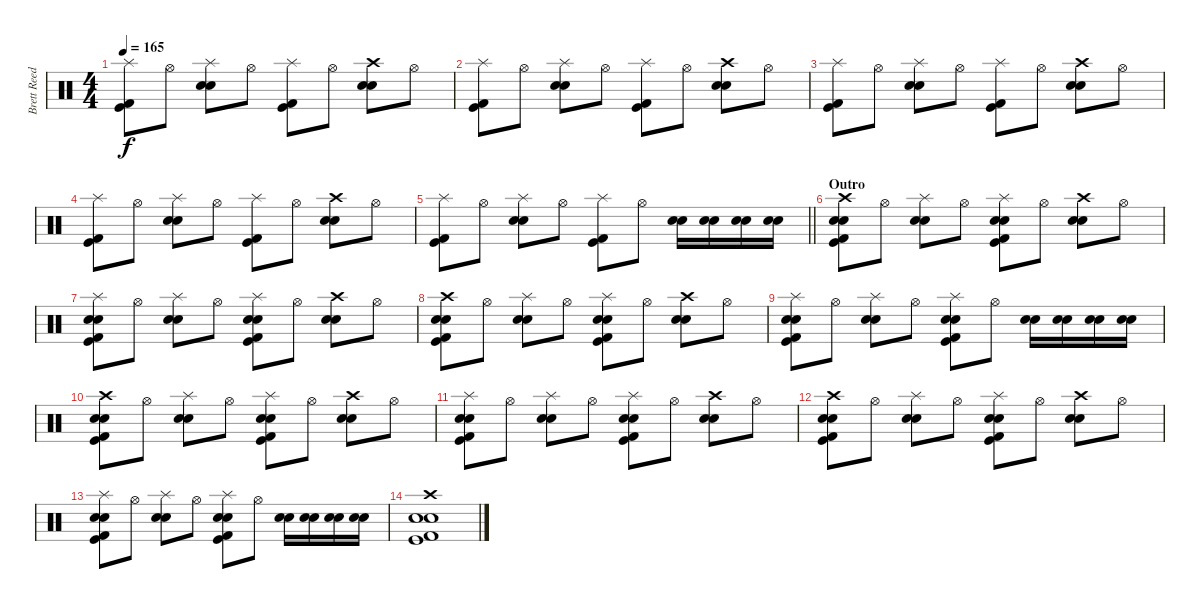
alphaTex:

\track ("Brett Reed" "Brett Reed") {instrument percussion}
\staff {score}
\articulation defaults
\ts (4 4)
\tempo 165
\clef neutral
\ks c
("Splash (hit)" "Kick (hit) 2" "Kick (hit)").8{dy f} "Hi-Hat (open)".8 ("Splash (hit)" "Electric Snare (hit)" "Snare (hit) 2").8 "Hi-Hat (open)".8 ("Splash (hit)" "Kick (hit) 2" "Kick (hit)").8 "Hi-Hat (open)".8 ("Crash high (hit)" "Electric Snare (hit)" "Snare (hit) 2").8 "Hi-Hat (open)".8 |
("Splash (hit)" "Kick (hit) 2" "Kick (hit)").8 "Hi-Hat (open)".8 ("Splash (hit)" "Electric Snare (hit)" "Snare (hit) 2").8 "Hi-Hat (open)".8 ("Splash (hit)" "Kick (hit) 2" "Kick (hit)").8 "Hi-Hat (open)".8 ("Crash high (hit)" "Electric Snare (hit)" "Snare (hit) 2").8 "Hi-Hat (open)".8 |
("Splash (hit)" "Kick (hit) 2" "Kick (hit)").8 "Hi-Hat (open)".8 ("Splash (hit)" "Electric Snare (hit)" "Snare (hit) 2").8 "Hi-Hat (open)".8 ("Splash (hit)" "Kick (hit) 2" "Kick (hit)").8 "Hi-Hat (open)".8 ("Crash high (hit)" "Electric Snare (hit)" "Snare (hit) 2").8 "Hi-Hat (open)".8 |
("Splash (hit)" "Kick (hit) 2" "Kick (hit)").8 "Hi-Hat (open)".8 ("Splash (hit)" "Electric Snare (hit)" "Snare (hit) 2").8 "Hi-Hat (open)".8 ("Splash (hit)" "Kick (hit) 2" "Kick (hit)").8 "Hi-Hat (open)".8 ("Crash high (hit)" "Electric Snare (hit)" "Snare (hit) 2").8 "Hi-Hat (open)".8 |
\barLineRight lightlight
("Splash (hit)" "Kick (hit) 2" "Kick (hit)").8 "Hi-Hat (open)".8 ("Splash (hit)" "Electric Snare (hit)" "Snare (hit) 2").8 "Hi-Hat (open)".8 ("Splash (hit)" "Kick (hit) 2" "Kick (hit)").8 "Hi-Hat (open)".8 ("Electric Snare (hit)" "Snare (hit) 2").16 ("Electric Snare (hit)" "Snare (hit) 2").16 ("Electric Snare (hit)" "Snare (hit) 2").16 ("Electric Snare (hit)" "Snare (hit) 2").16 |
\section ("" "Outro")
("Crash high (hit)" "Electric Snare (hit)" "Snare (hit) 2" "Kick (hit) 2" "Kick (hit)").8 "Hi-Hat (open)".8 ("Splash (hit)" "Electric Snare (hit)" "Snare (hit) 2").8 "Hi-Hat (open)".8 ("Splash (hit)" "Electric Snare (hit)" "Snare (hit) 2" "Kick (hit) 2" "Kick (hit)").8 "Hi-Hat (open)".8 ("Crash high (hit)" "Electric Snare (hit)" "Snare (hit) 2").8 "Hi-Hat (open)".8 |
("Splash (hit)" "Electric Snare (hit)" "Snare (hit) 2" "Kick (hit) 2" "Kick (hit)").8 "Hi-Hat (open)".8 ("Splash (hit)" "Electric Snare (hit)" "Snare (hit) 2").8 "Hi-Hat (open)".8 ("Splash (hit)" "Electric Snare (hit)" "Snare (hit) 2" "Kick (hit) 2" "Kick (hit)").8 "Hi-Hat (open)".8 ("Crash high (hit)" "Electric Snare (hit)" "Snare (hit) 2").8 "Hi-Hat (open)".8 |
("Crash high (hit)" "Electric Snare (hit)" "Snare (hit) 2" "Kick (hit) 2" "Kick (hit)").8 "Hi-Hat (open)".8 ("Splash (hit)" "Electric Snare (hit)" "Snare (hit) 2").8 "Hi-Hat (open)".8 ("Splash (hit)" "Electric Snare (hit)" "Snare (hit) 2" "Kick (hit) 2" "Kick (hit)").8 "Hi-Hat (open)".8 ("Crash high (hit)" "Electric Snare (hit)" "Snare (hit) 2").8 "Hi-Hat (open)".8 |
("Splash (hit)" "Electric Snare (hit)" "Snare (hit) 2" "Kick (hit) 2" "Kick (hit)").8 "Hi-Hat (open)".8 ("Splash (hit)" "Electric Snare (hit)" "Snare (hit) 2").8 "Hi-Hat (open)".8 ("Splash (hit)" "Electric Snare (hit)" "Snare (hit) 2" "Kick (hit) 2" "Kick (hit)").8 "Hi-Hat (open)".8 ("Electric Snare (hit)" "Snare (hit) 2").16 ("Electric Snare (hit)" "Snare (hit) 2").16 ("Electric Snare (hit)" "Snare (hit) 2").16 ("Electric Snare (hit)" "Snare (hit) 2").16 |
("Crash high (hit)" "Electric Snare (hit)" "Snare (hit) 2" "Kick (hit) 2" "Kick (hit)").8 "Hi-Hat (open)".8 ("Splash (hit)" "Electric Snare (hit)" "Snare (hit) 2").8 "Hi-Hat (open)".8 ("Splash (hit)" "Electric Snare (hit)" "Snare (hit) 2" "Kick (hit) 2" "Kick (hit)").8 "Hi-Hat (open)".8 ("Crash high (hit)" "Electric Snare (hit)" "Snare (hit) 2").8 "Hi-Hat (open)".8 |
("Splash (hit)" "Electric Snare (hit)" "Snare (hit) 2" "Kick (hit) 2" "Kick (hit)").8 "Hi-Hat (open)".8 ("Splash (hit)" "Electric Snare (hit)" "Snare (hit) 2").8 "Hi-Hat (open)".8 ("Splash (hit)" "Electric Snare (hit)" "Snare (hit) 2" "Kick (hit) 2" "Kick (hit)").8 "Hi-Hat (open)".8 ("Crash high (hit)" "Electric Snare (hit)" "Snare (hit) 2").8 "Hi-Hat (open)".8 |
("Crash high (hit)" "Electric Snare (hit)" "Snare (hit) 2" "Kick (hit) 2" "Kick (hit)").8 "Hi-Hat (open)".8 ("Splash (hit)" "Electric Snare (hit)" "Snare (hit) 2").8 "Hi-Hat (open)".8 ("Splash (hit)" "Electric Snare (hit)" "Snare (hit) 2" "Kick (hit) 2" "Kick (hit)").8 "Hi-Hat (open)".8 ("Crash high (hit)" "Electric Snare (hit)" "Snare (hit) 2").8 "Hi-Hat (open)".8 |
("Splash (hit)" "Electric Snare (hit)" "Snare (hit) 2" "Kick (hit) 2" "Kick (hit)").8 "Hi-Hat (open)".8 ("Splash (hit)" "Electric Snare (hit)" "Snare (hit) 2").8 "Hi-Hat (open)".8 ("Splash (hit)" "Electric Snare (hit)" "Snare (hit) 2" "Kick (hit) 2" "Kick (hit)").8 "Hi-Hat (open)".8 ("Electric Snare (hit)" "Snare (hit) 2").16 ("Electric Snare (hit)" "Snare (hit) 2").16 ("Electric Snare (hit)" "Snare (hit) 2").16 ("Electric Snare (hit)" "Snare (hit) 2").16 |
("Crash high (hit)" "Electric Snare (hit)" "Snare (hit) 2" "Kick (hit) 2" "Kick (hit)").1
